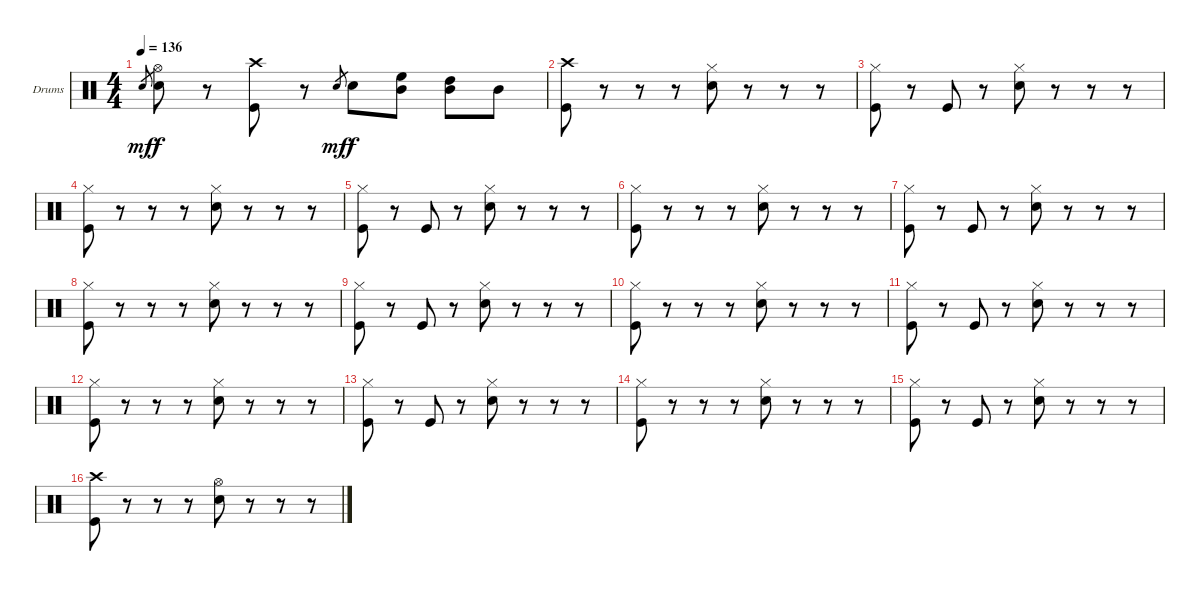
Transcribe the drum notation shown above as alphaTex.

\defaultSystemsLayout 4
\bracketExtendMode groupsimilarinstruments
\firstSystemTrackNameOrientation horizontal
\otherSystemsTrackNameOrientation horizontal
\track ("Барабаны" "Drums") {instrument percussion}
\staff {score}
\articulation defaults
\ts (4 4)
\tempo 136
\clef neutral
\ks c "Snare (hit) 2".8{gr dy mf}
("Hi-Hat (open)" "Snare (hit) 2").8{dy f} r.8 ("Crash high (hit)" "Kick (hit)").8 r.8 "Snare (hit) 2".8{gr dy mf} "Snare (hit) 2".8{dy f} ("Mid Tom (hit)" "High Floor Tom (hit)").8 ("Mid Tom (hit)" "High Tom (hit)").8 "Mid Tom (hit)".8 |
("Crash high (hit)" "Kick (hit)").8 r.8 r.8 r.8 ("Hi-Hat (closed)" "Snare (hit) 2").8 r.8 r.8 r.8 |
("Hi-Hat (closed)" "Kick (hit)").8 r.8 "Kick (hit)".8 r.8 ("Hi-Hat (closed)" "Snare (hit) 2").8 r.8 r.8 r.8 |
("Hi-Hat (closed)" "Kick (hit)").8 r.8 r.8 r.8 ("Hi-Hat (closed)" "Snare (hit) 2").8 r.8 r.8 r.8 |
("Hi-Hat (closed)" "Kick (hit)").8 r.8 "Kick (hit)".8 r.8 ("Hi-Hat (closed)" "Snare (hit) 2").8 r.8 r.8 r.8 |
("Hi-Hat (closed)" "Kick (hit)").8 r.8 r.8 r.8 ("Hi-Hat (closed)" "Snare (hit) 2").8 r.8 r.8 r.8 |
("Hi-Hat (closed)" "Kick (hit)").8 r.8 "Kick (hit)".8 r.8 ("Hi-Hat (closed)" "Snare (hit) 2").8 r.8 r.8 r.8 |
("Hi-Hat (closed)" "Kick (hit)").8 r.8 r.8 r.8 ("Hi-Hat (closed)" "Snare (hit) 2").8 r.8 r.8 r.8 |
("Hi-Hat (closed)" "Kick (hit)").8 r.8 "Kick (hit)".8 r.8 ("Hi-Hat (closed)" "Snare (hit) 2").8 r.8 r.8 r.8 |
("Hi-Hat (closed)" "Kick (hit)").8 r.8 r.8 r.8 ("Hi-Hat (closed)" "Snare (hit) 2").8 r.8 r.8 r.8 |
("Hi-Hat (closed)" "Kick (hit)").8 r.8 "Kick (hit)".8 r.8 ("Hi-Hat (closed)" "Snare (hit) 2").8 r.8 r.8 r.8 |
("Hi-Hat (closed)" "Kick (hit)").8 r.8 r.8 r.8 ("Hi-Hat (closed)" "Snare (hit) 2").8 r.8 r.8 r.8 |
("Hi-Hat (closed)" "Kick (hit)").8 r.8 "Kick (hit)".8 r.8 ("Hi-Hat (closed)" "Snare (hit) 2").8 r.8 r.8 r.8 |
("Hi-Hat (closed)" "Kick (hit)").8 r.8 r.8 r.8 ("Hi-Hat (closed)" "Snare (hit) 2").8 r.8 r.8 r.8 |
("Hi-Hat (closed)" "Kick (hit)").8 r.8 "Kick (hit)".8 r.8 ("Hi-Hat (closed)" "Snare (hit) 2").8 r.8 r.8 r.8 |
("Crash high (hit)" "Kick (hit)").8 r.8 r.8 r.8 ("Hi-Hat (open)" "Snare (hit) 2").8 r.8 r.8 r.8
